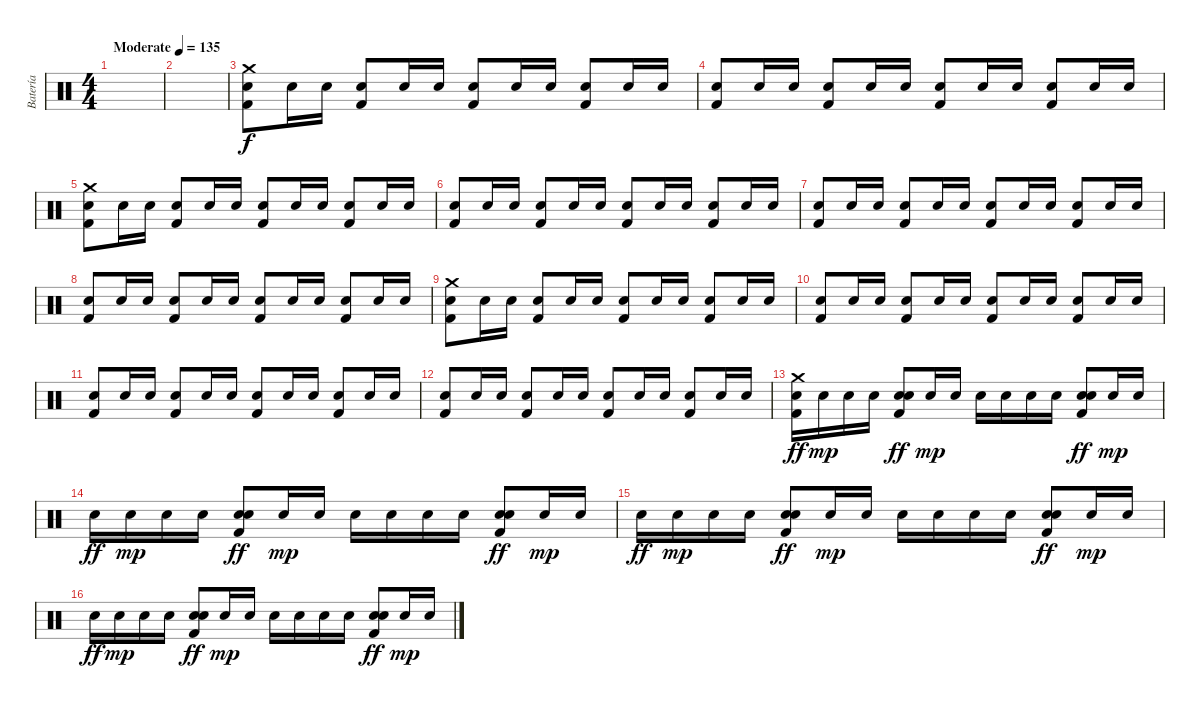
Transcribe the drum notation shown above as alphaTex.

\track ("Batería" "Batería") {instrument percussion}
\staff {score}
\articulation defaults
\ts (4 4)
\tempo (135 "Moderate")
\clef neutral
\ks c
|
|
("Crash medium (hit)" "Electric Snare (hit)" "Kick (hit) 2").8 "Electric Snare (hit)".16 "Electric Snare (hit)".16 ("Electric Snare (hit)" "Kick (hit) 2").8 "Electric Snare (hit)".16 "Electric Snare (hit)".16 ("Electric Snare (hit)" "Kick (hit) 2").8 "Electric Snare (hit)".16 "Electric Snare (hit)".16 ("Electric Snare (hit)" "Kick (hit) 2").8 "Electric Snare (hit)".16 "Electric Snare (hit)".16 |
("Electric Snare (hit)" "Kick (hit) 2").8 "Electric Snare (hit)".16 "Electric Snare (hit)".16 ("Electric Snare (hit)" "Kick (hit) 2").8 "Electric Snare (hit)".16 "Electric Snare (hit)".16 ("Electric Snare (hit)" "Kick (hit) 2").8 "Electric Snare (hit)".16 "Electric Snare (hit)".16 ("Electric Snare (hit)" "Kick (hit) 2").8 "Electric Snare (hit)".16 "Electric Snare (hit)".16 |
("Crash medium (hit)" "Electric Snare (hit)" "Kick (hit) 2").8 "Electric Snare (hit)".16 "Electric Snare (hit)".16 ("Electric Snare (hit)" "Kick (hit) 2").8 "Electric Snare (hit)".16 "Electric Snare (hit)".16 ("Electric Snare (hit)" "Kick (hit) 2").8 "Electric Snare (hit)".16 "Electric Snare (hit)".16 ("Electric Snare (hit)" "Kick (hit) 2").8 "Electric Snare (hit)".16 "Electric Snare (hit)".16 |
("Electric Snare (hit)" "Kick (hit) 2").8 "Electric Snare (hit)".16 "Electric Snare (hit)".16 ("Electric Snare (hit)" "Kick (hit) 2").8 "Electric Snare (hit)".16 "Electric Snare (hit)".16 ("Electric Snare (hit)" "Kick (hit) 2").8 "Electric Snare (hit)".16 "Electric Snare (hit)".16 ("Electric Snare (hit)" "Kick (hit) 2").8 "Electric Snare (hit)".16 "Electric Snare (hit)".16 |
("Electric Snare (hit)" "Kick (hit) 2").8 "Electric Snare (hit)".16 "Electric Snare (hit)".16 ("Electric Snare (hit)" "Kick (hit) 2").8 "Electric Snare (hit)".16 "Electric Snare (hit)".16 ("Electric Snare (hit)" "Kick (hit) 2").8 "Electric Snare (hit)".16 "Electric Snare (hit)".16 ("Electric Snare (hit)" "Kick (hit) 2").8 "Electric Snare (hit)".16 "Electric Snare (hit)".16 |
("Electric Snare (hit)" "Kick (hit) 2").8 "Electric Snare (hit)".16 "Electric Snare (hit)".16 ("Electric Snare (hit)" "Kick (hit) 2").8 "Electric Snare (hit)".16 "Electric Snare (hit)".16 ("Electric Snare (hit)" "Kick (hit) 2").8 "Electric Snare (hit)".16 "Electric Snare (hit)".16 ("Electric Snare (hit)" "Kick (hit) 2").8 "Electric Snare (hit)".16 "Electric Snare (hit)".16 |
("Crash medium (hit)" "Electric Snare (hit)" "Kick (hit) 2").8 "Electric Snare (hit)".16 "Electric Snare (hit)".16 ("Electric Snare (hit)" "Kick (hit) 2").8 "Electric Snare (hit)".16 "Electric Snare (hit)".16 ("Electric Snare (hit)" "Kick (hit) 2").8 "Electric Snare (hit)".16 "Electric Snare (hit)".16 ("Electric Snare (hit)" "Kick (hit) 2").8 "Electric Snare (hit)".16 "Electric Snare (hit)".16 |
("Electric Snare (hit)" "Kick (hit) 2").8 "Electric Snare (hit)".16 "Electric Snare (hit)".16 ("Electric Snare (hit)" "Kick (hit) 2").8 "Electric Snare (hit)".16 "Electric Snare (hit)".16 ("Electric Snare (hit)" "Kick (hit) 2").8 "Electric Snare (hit)".16 "Electric Snare (hit)".16 ("Electric Snare (hit)" "Kick (hit) 2").8 "Electric Snare (hit)".16 "Electric Snare (hit)".16 |
("Electric Snare (hit)" "Kick (hit) 2").8 "Electric Snare (hit)".16 "Electric Snare (hit)".16 ("Electric Snare (hit)" "Kick (hit) 2").8 "Electric Snare (hit)".16 "Electric Snare (hit)".16 ("Electric Snare (hit)" "Kick (hit) 2").8 "Electric Snare (hit)".16 "Electric Snare (hit)".16 ("Electric Snare (hit)" "Kick (hit) 2").8 "Electric Snare (hit)".16 "Electric Snare (hit)".16 |
("Electric Snare (hit)" "Kick (hit) 2").8 "Electric Snare (hit)".16 "Electric Snare (hit)".16 ("Electric Snare (hit)" "Kick (hit) 2").8 "Electric Snare (hit)".16 "Electric Snare (hit)".16 ("Electric Snare (hit)" "Kick (hit) 2").8 "Electric Snare (hit)".16 "Electric Snare (hit)".16 ("Electric Snare (hit)" "Kick (hit) 2").8 "Electric Snare (hit)".16 "Electric Snare (hit)".16 |
("Crash medium (hit)" "Electric Snare (hit)" "Kick (hit) 2").16{dy ff} "Electric Snare (hit)".16{dy mp} "Electric Snare (hit)".16 "Electric Snare (hit)".16 ("Electric Snare (hit)" "Electric Snare (hit)" "Kick (hit) 2").8{dy ff} "Electric Snare (hit)".16{dy mp} "Electric Snare (hit)".16 "Electric Snare (hit)".16 "Electric Snare (hit)".16 "Electric Snare (hit)".16 "Electric Snare (hit)".16 ("Electric Snare (hit)" "Electric Snare (hit)" "Kick (hit) 2").8{dy ff} "Electric Snare (hit)".16{dy mp} "Electric Snare (hit)".16 |
"Electric Snare (hit)".16{dy ff} "Electric Snare (hit)".16{dy mp} "Electric Snare (hit)".16 "Electric Snare (hit)".16 ("Electric Snare (hit)" "Electric Snare (hit)" "Kick (hit) 2").8{dy ff} "Electric Snare (hit)".16{dy mp} "Electric Snare (hit)".16 "Electric Snare (hit)".16 "Electric Snare (hit)".16 "Electric Snare (hit)".16 "Electric Snare (hit)".16 ("Electric Snare (hit)" "Electric Snare (hit)" "Kick (hit) 2").8{dy ff} "Electric Snare (hit)".16{dy mp} "Electric Snare (hit)".16 |
"Electric Snare (hit)".16{dy ff} "Electric Snare (hit)".16{dy mp} "Electric Snare (hit)".16 "Electric Snare (hit)".16 ("Electric Snare (hit)" "Electric Snare (hit)" "Kick (hit) 2").8{dy ff} "Electric Snare (hit)".16{dy mp} "Electric Snare (hit)".16 "Electric Snare (hit)".16 "Electric Snare (hit)".16 "Electric Snare (hit)".16 "Electric Snare (hit)".16 ("Electric Snare (hit)" "Electric Snare (hit)" "Kick (hit) 2").8{dy ff} "Electric Snare (hit)".16{dy mp} "Electric Snare (hit)".16 |
"Electric Snare (hit)".16{dy ff} "Electric Snare (hit)".16{dy mp} "Electric Snare (hit)".16 "Electric Snare (hit)".16 ("Electric Snare (hit)" "Electric Snare (hit)" "Kick (hit) 2").8{dy ff} "Electric Snare (hit)".16{dy mp} "Electric Snare (hit)".16 "Electric Snare (hit)".16 "Electric Snare (hit)".16 "Electric Snare (hit)".16 "Electric Snare (hit)".16 ("Electric Snare (hit)" "Electric Snare (hit)" "Kick (hit) 2").8{dy ff} "Electric Snare (hit)".16{dy mp} "Electric Snare (hit)".16
